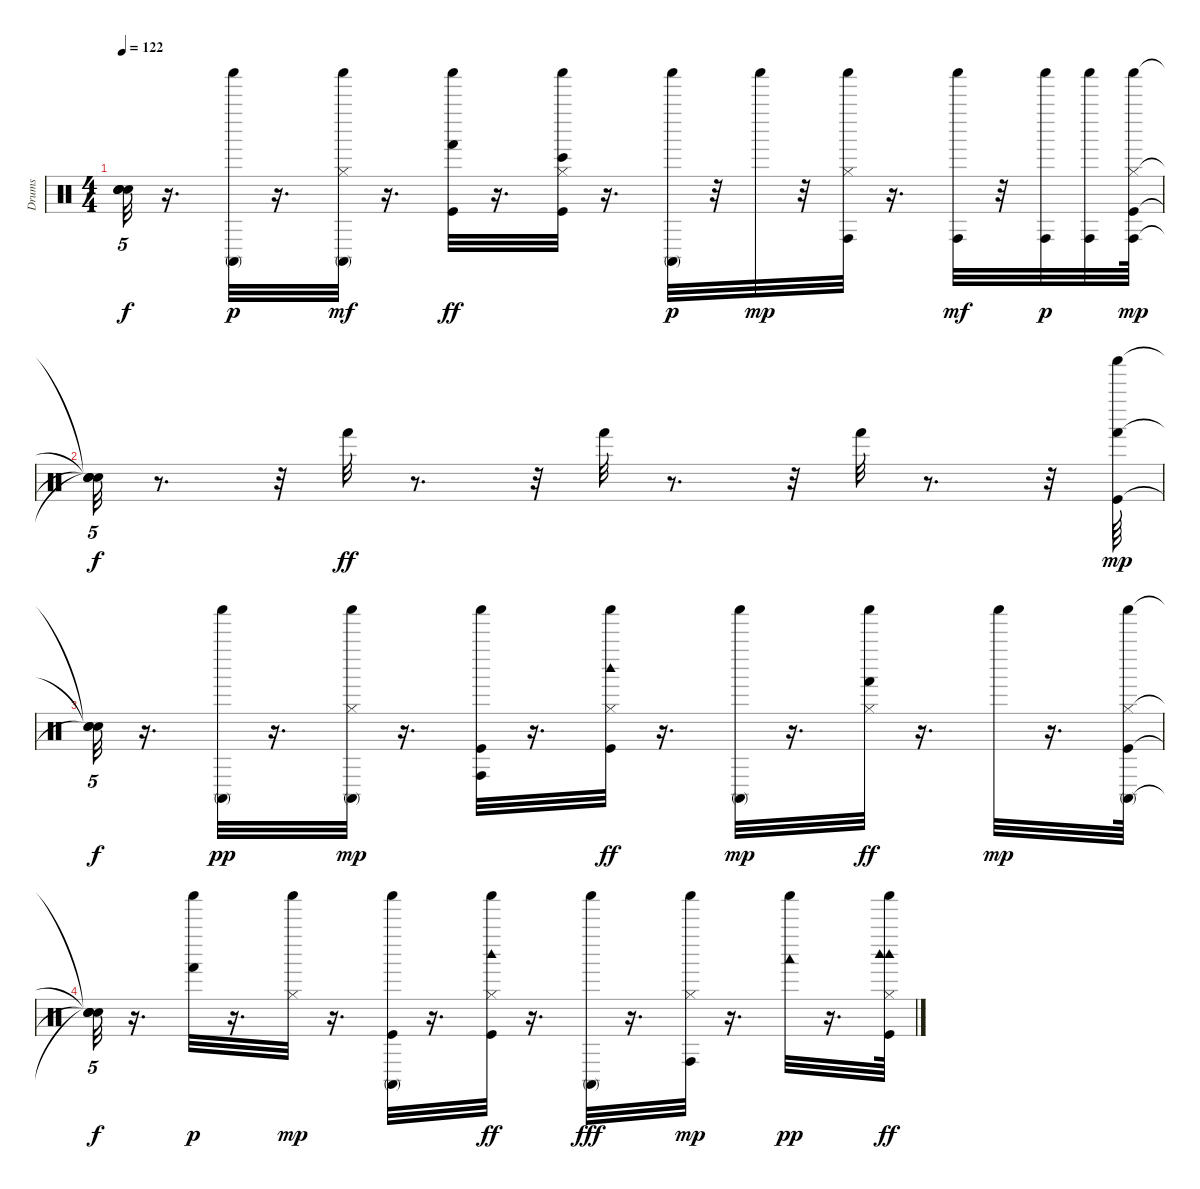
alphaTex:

\track ("Drums" "Drums") {instrument percussion}
\staff {score}
\articulation defaults
\ts (4 4)
\tempo 122
\clef neutral
\ks c
("Snare (hit)"{t} "Snare (hit)"{t} "Snare (hit)"{t} "Snare (hit)"{t}).32{tu (5 4) dy f} r.16{d} ("Conga high (mute)" "Shaker (hit)").32{dy p} r.16{d} ("Hi-Hat (closed)" "Shaker (hit)" "Conga high (mute)").32{dy mf} r.16{d} ("Shaker (hit)" "Kick (hit)" "Hand (hit)").32{dy ff} r.16{d} ("Hi-Hat (closed)" "Shaker (hit)" "Kick (hit)" "Bongo High (hit)").32 r.16{d} ("Shaker (hit)" "Conga high (mute)").32{dy p} r.32 "Shaker (hit)".32{dy mp} r.32 ("Hi-Hat (closed)" "Shaker (hit)" "Conga high (hit)").32 r.16{d} ("Shaker (hit)" "Conga high (hit)").32{dy mf} r.32 ("Conga high (hit)" "Shaker (hit)").32{dy p} ("Conga high (hit)" "Shaker (hit)").32 ("Kick (hit)" "Hi-Hat (closed)" "Conga high (hit)" "Shaker (hit)").64{dy mp} |
("Snare (hit)"{t} "Snare (hit)"{t} "Snare (hit)"{t} "Snare (hit)"{t}).32{tu (5 4) dy f} r.8{d} r.32 "Hand (hit)".32{dy ff} r.8{d} r.32 "Hand (hit)".32 r.8{d} r.32 "Hand (hit)".32 r.8{d} r.32 ("Kick (hit)" "Hand (hit)" "Shaker (hit)").64{dy mp} |
("Snare (hit)"{t} "Snare (hit)"{t} "Snare (hit)"{t}).32{tu (5 4) dy f} r.16{d} ("Shaker (hit)" "Conga high (mute)").32{dy pp} r.16{d} ("Shaker (hit)" "Hi-Hat (closed)" "Conga high (mute)").32{dy mp} r.16{d} ("Shaker (hit)" "Kick (hit)" "Conga high (hit)").32 r.16{d} ("Shaker (hit)" "Kick (hit)" "Hi-Hat (closed)" "Woodblock high (hit)").32{dy ff} r.16{d} ("Shaker (hit)" "Conga high (mute)").32{dy mp} r.16{d} ("Shaker (hit)" "Hi-Hat (closed)" "Hand (hit)").32{dy ff} r.16{d} "Shaker (hit)".32{dy mp} r.16{d} ("Kick (hit)" "Hi-Hat (closed)" "Conga high (mute)" "Shaker (hit)").64 |
("Snare (hit)"{t} "Snare (hit)"{t} "Snare (hit)"{t} "Snare (hit)"{t}).32{tu (5 4) dy f} r.16{d} ("Hand (hit)" "Shaker (hit)").32{dy p} r.16{d} ("Shaker (hit)" "Hi-Hat (closed)").32{dy mp} r.16{d} ("Shaker (hit)" "Kick (hit)" "Conga high (mute)").32 r.16{d} ("Shaker (hit)" "Kick (hit)" "Hi-Hat (closed)" "Woodblock high (hit)").32{dy ff} r.16{d} ("Shaker (hit)" "Conga high (mute)").32{dy fff} r.16{d} ("Shaker (hit)" "Hi-Hat (closed)" "Conga high (hit)").32{dy mp} r.16{d} ("Shaker (hit)" "Woodblock low (hit)").32{dy pp} r.16{d} ("Shaker (hit)" "Kick (hit)" "Hi-Hat (closed)" "Woodblock high (hit)" "Woodblock high (hit)").64{dy ff}
